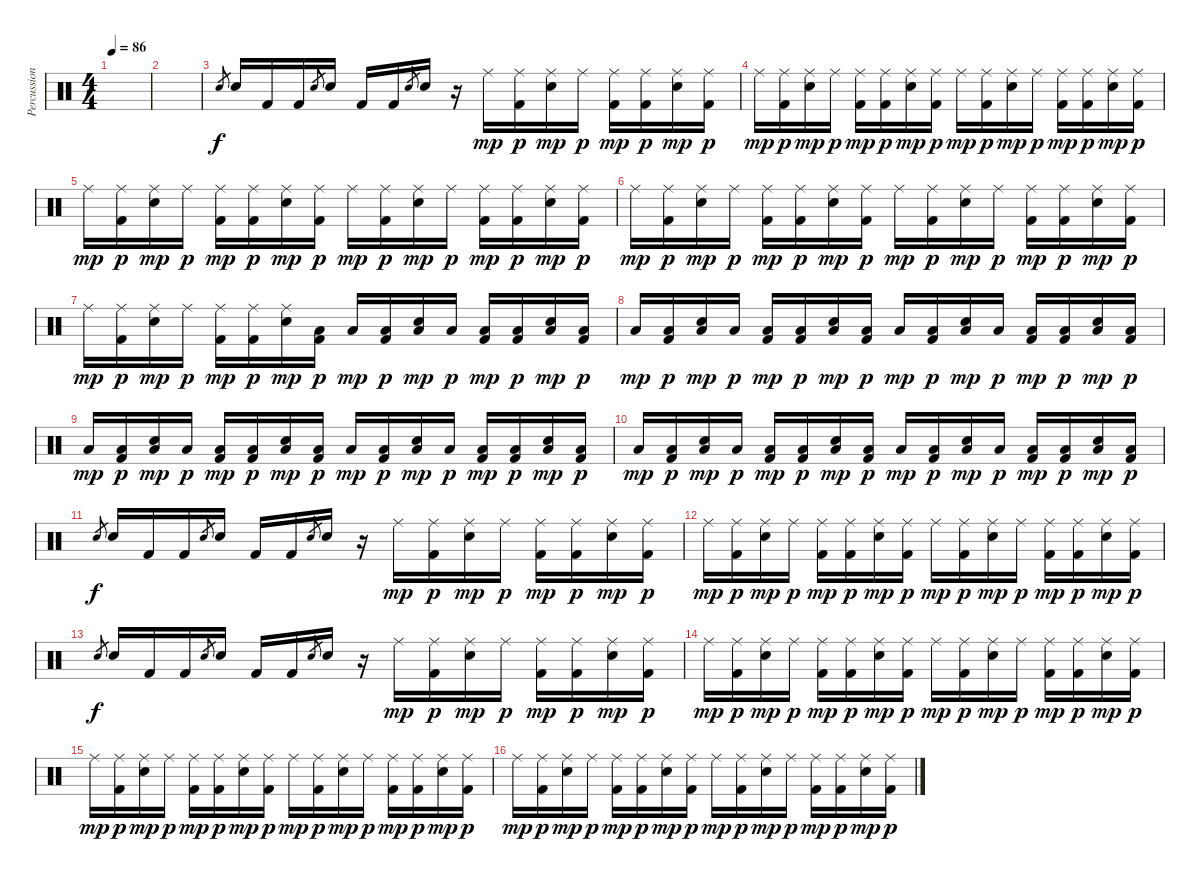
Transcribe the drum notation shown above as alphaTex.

\track ("Percussion" "Percussion") {instrument percussion}
\staff {score}
\articulation defaults
\ts (4 4)
\tempo 86
\clef neutral
\ks c
|
|
"Electric Snare (hit)".8{gr} "Electric Snare (hit)".16 "Kick (hit) 2".16 "Kick (hit) 2".16 "Electric Snare (hit)".8{gr} "Electric Snare (hit)".16 "Kick (hit) 2".16 "Kick (hit) 2".16 "Electric Snare (hit)".8{gr} "Electric Snare (hit)".16 r.16 "Ride (middle)".16{dy mp} ("Ride (middle)" "Kick (hit) 2").16{dy p} ("Ride (middle)" "Electric Snare (hit)").16{dy mp} "Ride (middle)".16{dy p} ("Ride (middle)" "Kick (hit) 2").16{dy mp} ("Ride (middle)" "Kick (hit) 2").16{dy p} ("Ride (middle)" "Electric Snare (hit)").16{dy mp} ("Ride (middle)" "Kick (hit) 2").16{dy p} |
"Ride (middle)".16{dy mp} ("Ride (middle)" "Kick (hit) 2").16{dy p} ("Ride (middle)" "Electric Snare (hit)").16{dy mp} "Ride (middle)".16{dy p} ("Ride (middle)" "Kick (hit) 2").16{dy mp} ("Ride (middle)" "Kick (hit) 2").16{dy p} ("Ride (middle)" "Electric Snare (hit)").16{dy mp} ("Ride (middle)" "Kick (hit) 2").16{dy p} "Ride (middle)".16{dy mp} ("Ride (middle)" "Kick (hit) 2").16{dy p} ("Ride (middle)" "Electric Snare (hit)").16{dy mp} "Ride (middle)".16{dy p} ("Ride (middle)" "Kick (hit) 2").16{dy mp} ("Ride (middle)" "Kick (hit) 2").16{dy p} ("Ride (middle)" "Electric Snare (hit)").16{dy mp} ("Ride (middle)" "Kick (hit) 2").16{dy p} |
"Ride (middle)".16{dy mp} ("Ride (middle)" "Kick (hit) 2").16{dy p} ("Ride (middle)" "Electric Snare (hit)").16{dy mp} "Ride (middle)".16{dy p} ("Ride (middle)" "Kick (hit) 2").16{dy mp} ("Ride (middle)" "Kick (hit) 2").16{dy p} ("Ride (middle)" "Electric Snare (hit)").16{dy mp} ("Ride (middle)" "Kick (hit) 2").16{dy p} "Ride (middle)".16{dy mp} ("Ride (middle)" "Kick (hit) 2").16{dy p} ("Ride (middle)" "Electric Snare (hit)").16{dy mp} "Ride (middle)".16{dy p} ("Ride (middle)" "Kick (hit) 2").16{dy mp} ("Ride (middle)" "Kick (hit) 2").16{dy p} ("Ride (middle)" "Electric Snare (hit)").16{dy mp} ("Ride (middle)" "Kick (hit) 2").16{dy p} |
"Ride (middle)".16{dy mp} ("Ride (middle)" "Kick (hit) 2").16{dy p} ("Ride (middle)" "Electric Snare (hit)").16{dy mp} "Ride (middle)".16{dy p} ("Ride (middle)" "Kick (hit) 2").16{dy mp} ("Ride (middle)" "Kick (hit) 2").16{dy p} ("Ride (middle)" "Electric Snare (hit)").16{dy mp} ("Ride (middle)" "Kick (hit) 2").16{dy p} "Ride (middle)".16{dy mp} ("Ride (middle)" "Kick (hit) 2").16{dy p} ("Ride (middle)" "Electric Snare (hit)").16{dy mp} "Ride (middle)".16{dy p} ("Ride (middle)" "Kick (hit) 2").16{dy mp} ("Ride (middle)" "Kick (hit) 2").16{dy p} ("Ride (middle)" "Electric Snare (hit)").16{dy mp} ("Ride (middle)" "Kick (hit) 2").16{dy p} |
"Ride (middle)".16{dy mp} ("Ride (middle)" "Kick (hit) 2").16{dy p} ("Ride (middle)" "Electric Snare (hit)").16{dy mp} "Ride (middle)".16{dy p} ("Ride (middle)" "Kick (hit) 2").16{dy mp} ("Ride (middle)" "Kick (hit) 2").16{dy p} ("Ride (middle)" "Electric Snare (hit)").16{dy mp} ("Low Floor Tom (hit)" "Kick (hit) 2").16{dy p} "Low Floor Tom (hit)".16{dy mp} ("Low Floor Tom (hit)" "Kick (hit) 2").16{dy p} ("Low Floor Tom (hit)" "Electric Snare (hit)").16{dy mp} "Low Floor Tom (hit)".16{dy p} ("Low Floor Tom (hit)" "Kick (hit) 2").16{dy mp} ("Low Floor Tom (hit)" "Kick (hit) 2").16{dy p} ("Low Floor Tom (hit)" "Electric Snare (hit)").16{dy mp} ("Low Floor Tom (hit)" "Kick (hit) 2").16{dy p} |
"Low Floor Tom (hit)".16{dy mp} ("Low Floor Tom (hit)" "Kick (hit) 2").16{dy p} ("Low Floor Tom (hit)" "Electric Snare (hit)").16{dy mp} "Low Floor Tom (hit)".16{dy p} ("Low Floor Tom (hit)" "Kick (hit) 2").16{dy mp} ("Low Floor Tom (hit)" "Kick (hit) 2").16{dy p} ("Low Floor Tom (hit)" "Electric Snare (hit)").16{dy mp} ("Low Floor Tom (hit)" "Kick (hit) 2").16{dy p} "Low Floor Tom (hit)".16{dy mp} ("Low Floor Tom (hit)" "Kick (hit) 2").16{dy p} ("Low Floor Tom (hit)" "Electric Snare (hit)").16{dy mp} "Low Floor Tom (hit)".16{dy p} ("Low Floor Tom (hit)" "Kick (hit) 2").16{dy mp} ("Low Floor Tom (hit)" "Kick (hit) 2").16{dy p} ("Low Floor Tom (hit)" "Electric Snare (hit)").16{dy mp} ("Low Floor Tom (hit)" "Kick (hit) 2").16{dy p} |
"Low Floor Tom (hit)".16{dy mp} ("Low Floor Tom (hit)" "Kick (hit) 2").16{dy p} ("Low Floor Tom (hit)" "Electric Snare (hit)").16{dy mp} "Low Floor Tom (hit)".16{dy p} ("Low Floor Tom (hit)" "Kick (hit) 2").16{dy mp} ("Low Floor Tom (hit)" "Kick (hit) 2").16{dy p} ("Low Floor Tom (hit)" "Electric Snare (hit)").16{dy mp} ("Low Floor Tom (hit)" "Kick (hit) 2").16{dy p} "Low Floor Tom (hit)".16{dy mp} ("Low Floor Tom (hit)" "Kick (hit) 2").16{dy p} ("Low Floor Tom (hit)" "Electric Snare (hit)").16{dy mp} "Low Floor Tom (hit)".16{dy p} ("Low Floor Tom (hit)" "Kick (hit) 2").16{dy mp} ("Low Floor Tom (hit)" "Kick (hit) 2").16{dy p} ("Low Floor Tom (hit)" "Electric Snare (hit)").16{dy mp} ("Low Floor Tom (hit)" "Kick (hit) 2").16{dy p} |
"Low Floor Tom (hit)".16{dy mp} ("Low Floor Tom (hit)" "Kick (hit) 2").16{dy p} ("Low Floor Tom (hit)" "Electric Snare (hit)").16{dy mp} "Low Floor Tom (hit)".16{dy p} ("Low Floor Tom (hit)" "Kick (hit) 2").16{dy mp} ("Low Floor Tom (hit)" "Kick (hit) 2").16{dy p} ("Low Floor Tom (hit)" "Electric Snare (hit)").16{dy mp} ("Low Floor Tom (hit)" "Kick (hit) 2").16{dy p} "Low Floor Tom (hit)".16{dy mp} ("Low Floor Tom (hit)" "Kick (hit) 2").16{dy p} ("Low Floor Tom (hit)" "Electric Snare (hit)").16{dy mp} "Low Floor Tom (hit)".16{dy p} ("Low Floor Tom (hit)" "Kick (hit) 2").16{dy mp} ("Low Floor Tom (hit)" "Kick (hit) 2").16{dy p} ("Low Floor Tom (hit)" "Electric Snare (hit)").16{dy mp} ("Low Floor Tom (hit)" "Kick (hit) 2").16{dy p} |
"Electric Snare (hit)".8{gr dy f} "Electric Snare (hit)".16 "Kick (hit) 2".16 "Kick (hit) 2".16 "Electric Snare (hit)".8{gr} "Electric Snare (hit)".16 "Kick (hit) 2".16 "Kick (hit) 2".16 "Electric Snare (hit)".8{gr} "Electric Snare (hit)".16 r.16 "Ride (middle)".16{dy mp} ("Ride (middle)" "Kick (hit) 2").16{dy p} ("Ride (middle)" "Electric Snare (hit)").16{dy mp} "Ride (middle)".16{dy p} ("Ride (middle)" "Kick (hit) 2").16{dy mp} ("Ride (middle)" "Kick (hit) 2").16{dy p} ("Ride (middle)" "Electric Snare (hit)").16{dy mp} ("Ride (middle)" "Kick (hit) 2").16{dy p} |
"Ride (middle)".16{dy mp} ("Ride (middle)" "Kick (hit) 2").16{dy p} ("Ride (middle)" "Electric Snare (hit)").16{dy mp} "Ride (middle)".16{dy p} ("Ride (middle)" "Kick (hit) 2").16{dy mp} ("Ride (middle)" "Kick (hit) 2").16{dy p} ("Ride (middle)" "Electric Snare (hit)").16{dy mp} ("Ride (middle)" "Kick (hit) 2").16{dy p} "Ride (middle)".16{dy mp} ("Ride (middle)" "Kick (hit) 2").16{dy p} ("Ride (middle)" "Electric Snare (hit)").16{dy mp} "Ride (middle)".16{dy p} ("Ride (middle)" "Kick (hit) 2").16{dy mp} ("Ride (middle)" "Kick (hit) 2").16{dy p} ("Ride (middle)" "Electric Snare (hit)").16{dy mp} ("Ride (middle)" "Kick (hit) 2").16{dy p} |
"Electric Snare (hit)".8{gr dy f} "Electric Snare (hit)".16 "Kick (hit) 2".16 "Kick (hit) 2".16 "Electric Snare (hit)".8{gr} "Electric Snare (hit)".16 "Kick (hit) 2".16 "Kick (hit) 2".16 "Electric Snare (hit)".8{gr} "Electric Snare (hit)".16 r.16 "Ride (middle)".16{dy mp} ("Ride (middle)" "Kick (hit) 2").16{dy p} ("Ride (middle)" "Electric Snare (hit)").16{dy mp} "Ride (middle)".16{dy p} ("Ride (middle)" "Kick (hit) 2").16{dy mp} ("Ride (middle)" "Kick (hit) 2").16{dy p} ("Ride (middle)" "Electric Snare (hit)").16{dy mp} ("Ride (middle)" "Kick (hit) 2").16{dy p} |
"Ride (middle)".16{dy mp} ("Ride (middle)" "Kick (hit) 2").16{dy p} ("Ride (middle)" "Electric Snare (hit)").16{dy mp} "Ride (middle)".16{dy p} ("Ride (middle)" "Kick (hit) 2").16{dy mp} ("Ride (middle)" "Kick (hit) 2").16{dy p} ("Ride (middle)" "Electric Snare (hit)").16{dy mp} ("Ride (middle)" "Kick (hit) 2").16{dy p} "Ride (middle)".16{dy mp} ("Ride (middle)" "Kick (hit) 2").16{dy p} ("Ride (middle)" "Electric Snare (hit)").16{dy mp} "Ride (middle)".16{dy p} ("Ride (middle)" "Kick (hit) 2").16{dy mp} ("Ride (middle)" "Kick (hit) 2").16{dy p} ("Ride (middle)" "Electric Snare (hit)").16{dy mp} ("Ride (middle)" "Kick (hit) 2").16{dy p} |
"Ride (middle)".16{dy mp} ("Ride (middle)" "Kick (hit) 2").16{dy p} ("Ride (middle)" "Electric Snare (hit)").16{dy mp} "Ride (middle)".16{dy p} ("Ride (middle)" "Kick (hit) 2").16{dy mp} ("Ride (middle)" "Kick (hit) 2").16{dy p} ("Ride (middle)" "Electric Snare (hit)").16{dy mp} ("Ride (middle)" "Kick (hit) 2").16{dy p} "Ride (middle)".16{dy mp} ("Ride (middle)" "Kick (hit) 2").16{dy p} ("Ride (middle)" "Electric Snare (hit)").16{dy mp} "Ride (middle)".16{dy p} ("Ride (middle)" "Kick (hit) 2").16{dy mp} ("Ride (middle)" "Kick (hit) 2").16{dy p} ("Ride (middle)" "Electric Snare (hit)").16{dy mp} ("Ride (middle)" "Kick (hit) 2").16{dy p} |
"Ride (middle)".16{dy mp} ("Ride (middle)" "Kick (hit) 2").16{dy p} ("Ride (middle)" "Electric Snare (hit)").16{dy mp} "Ride (middle)".16{dy p} ("Ride (middle)" "Kick (hit) 2").16{dy mp} ("Ride (middle)" "Kick (hit) 2").16{dy p} ("Ride (middle)" "Electric Snare (hit)").16{dy mp} ("Ride (middle)" "Kick (hit) 2").16{dy p} "Ride (middle)".16{dy mp} ("Ride (middle)" "Kick (hit) 2").16{dy p} ("Ride (middle)" "Electric Snare (hit)").16{dy mp} "Ride (middle)".16{dy p} ("Ride (middle)" "Kick (hit) 2").16{dy mp} ("Ride (middle)" "Kick (hit) 2").16{dy p} ("Ride (middle)" "Electric Snare (hit)").16{dy mp} ("Ride (middle)" "Kick (hit) 2").16{dy p}
